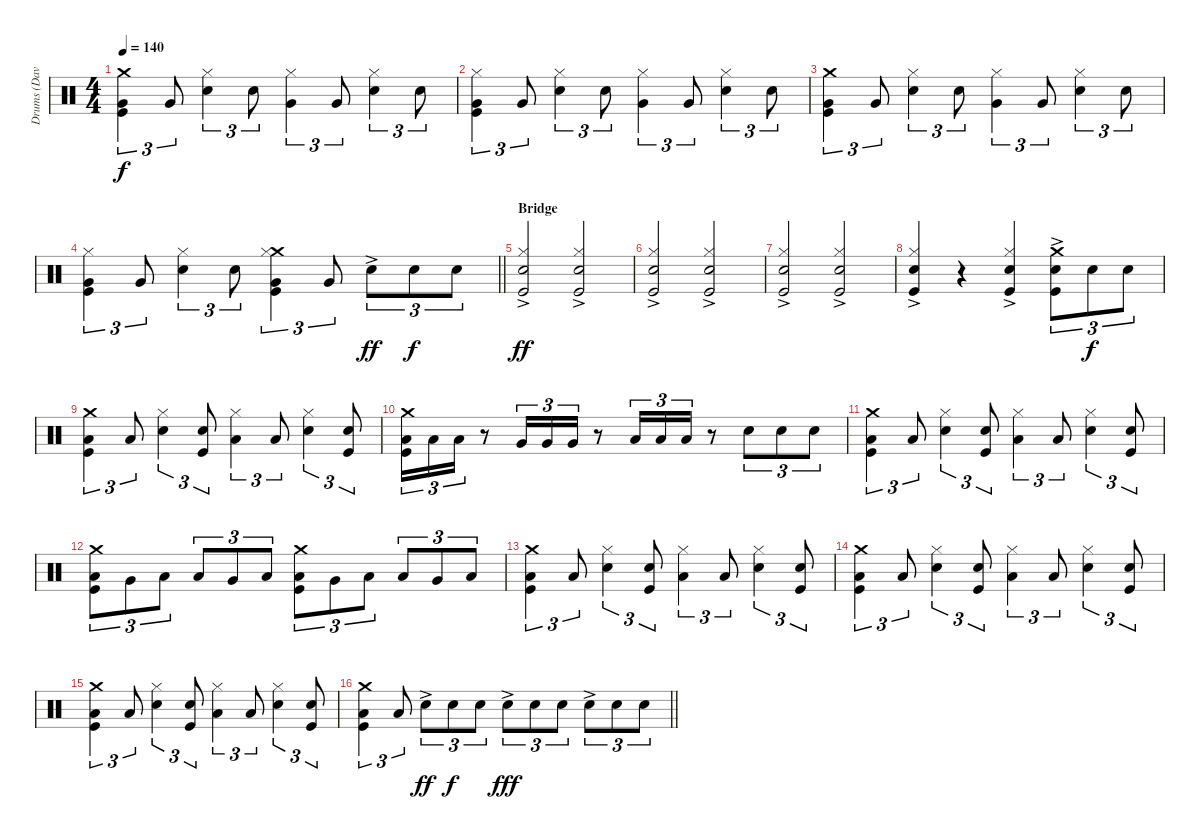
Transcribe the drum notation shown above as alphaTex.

\track ("Drums (Dave Atkins)" "Drums (Dav") {instrument percussion}
\staff {score}
\articulation defaults
\ts (4 4)
\tempo 140
\clef neutral
\ks c
("Crash medium (hit)" "Very Low Tom (hit)" "Kick (hit)").4{tu (3 2) dy f} "Very Low Tom (hit)".8{tu (3 2)} ("Hi-Hat (closed)" "Snare (hit) 2").4{tu (3 2)} "Snare (hit) 2".8{tu (3 2)} ("Hi-Hat (closed)" "Very Low Tom (hit)").4{tu (3 2)} "Very Low Tom (hit)".8{tu (3 2)} ("Hi-Hat (closed)" "Snare (hit) 2").4{tu (3 2)} "Snare (hit) 2".8{tu (3 2)} |
("Hi-Hat (closed)" "Very Low Tom (hit)" "Kick (hit)").4{tu (3 2)} "Very Low Tom (hit)".8{tu (3 2)} ("Hi-Hat (closed)" "Snare (hit) 2").4{tu (3 2)} "Snare (hit) 2".8{tu (3 2)} ("Hi-Hat (closed)" "Very Low Tom (hit)").4{tu (3 2)} "Very Low Tom (hit)".8{tu (3 2)} ("Hi-Hat (closed)" "Snare (hit) 2").4{tu (3 2)} "Snare (hit) 2".8{tu (3 2)} |
("Crash medium (hit)" "Very Low Tom (hit)" "Kick (hit)").4{tu (3 2)} "Very Low Tom (hit)".8{tu (3 2)} ("Hi-Hat (closed)" "Snare (hit) 2").4{tu (3 2)} "Snare (hit) 2".8{tu (3 2)} ("Hi-Hat (closed)" "Very Low Tom (hit)").4{tu (3 2)} "Very Low Tom (hit)".8{tu (3 2)} ("Hi-Hat (closed)" "Snare (hit) 2").4{tu (3 2)} "Snare (hit) 2".8{tu (3 2)} |
\barLineRight lightlight
("Hi-Hat (closed)" "Very Low Tom (hit)" "Kick (hit)").4{tu (3 2)} "Very Low Tom (hit)".8{tu (3 2)} ("Hi-Hat (closed)" "Snare (hit) 2").4{tu (3 2)} "Snare (hit) 2".8{tu (3 2)} ("Crash medium (hit)" "Hi-Hat (closed)" "Very Low Tom (hit)" "Kick (hit)").4{tu (3 2)} "Very Low Tom (hit)".8{tu (3 2)} "Snare (hit) 2"{ac}.8{tu (3 2) dy ff} "Snare (hit) 2".8{tu (3 2) dy f} "Snare (hit) 2".8{tu (3 2)} |
\section ("" "Bridge")
("Hi-Hat (closed)"{ac} "Snare (hit) 2"{ac} "Kick (hit)"{ac}).2{dy ff} ("Hi-Hat (closed)"{ac} "Snare (hit) 2"{ac} "Kick (hit)"{ac}).2 |
("Hi-Hat (closed)"{ac} "Snare (hit) 2"{ac} "Kick (hit)"{ac}).2 ("Hi-Hat (closed)"{ac} "Snare (hit) 2"{ac} "Kick (hit)"{ac}).2 |
("Hi-Hat (closed)"{ac} "Snare (hit) 2"{ac} "Kick (hit)"{ac}).2 ("Hi-Hat (closed)"{ac} "Snare (hit) 2"{ac} "Kick (hit)"{ac}).2 |
("Hi-Hat (closed)"{ac} "Snare (hit) 2"{ac} "Kick (hit)"{ac}).4 r.4 ("Hi-Hat (closed)"{ac} "Snare (hit) 2"{ac} "Kick (hit)"{ac}).4 ("Crash medium (hit)" "Snare (hit) 2"{ac} "Kick (hit)").8{tu (3 2)} "Snare (hit) 2".8{tu (3 2) dy f} "Snare (hit) 2".8{tu (3 2)} |
("Crash medium (hit)" "Low Floor Tom (hit)" "Kick (hit)").4{tu (3 2)} "Low Floor Tom (hit)".8{tu (3 2)} ("Hi-Hat (closed)" "Snare (hit) 2").4{tu (3 2)} ("Snare (hit) 2" "Kick (hit)").8{tu (3 2)} ("Hi-Hat (closed)" "Low Floor Tom (hit)").4{tu (3 2)} "Low Floor Tom (hit)".8{tu (3 2)} ("Hi-Hat (closed)" "Snare (hit) 2").4{tu (3 2)} ("Snare (hit) 2" "Kick (hit)").8{tu (3 2)} |
("Crash medium (hit)" "Low Tom (hit)" "Kick (hit)").16{tu (3 2)} "Low Tom (hit)".16{tu (3 2)} "Low Tom (hit)".16{tu (3 2)} r.8 "Very Low Tom (hit)".16{tu (3 2)} "Very Low Tom (hit)".16{tu (3 2)} "Very Low Tom (hit)".16{tu (3 2)} r.8 "Low Floor Tom (hit)".16{tu (3 2)} "Low Floor Tom (hit)".16{tu (3 2)} "Low Floor Tom (hit)".16{tu (3 2)} r.8 "Snare (hit) 2".8{tu (3 2)} "Snare (hit) 2".8{tu (3 2)} "Snare (hit) 2".8{tu (3 2)} |
("Crash medium (hit)" "Low Floor Tom (hit)" "Kick (hit)").4{tu (3 2)} "Low Floor Tom (hit)".8{tu (3 2)} ("Hi-Hat (closed)" "Snare (hit) 2").4{tu (3 2)} ("Snare (hit) 2" "Kick (hit)").8{tu (3 2)} ("Hi-Hat (closed)" "Low Floor Tom (hit)").4{tu (3 2)} "Low Floor Tom (hit)".8{tu (3 2)} ("Hi-Hat (closed)" "Snare (hit) 2").4{tu (3 2)} ("Snare (hit) 2" "Kick (hit)").8{tu (3 2)} |
("Crash medium (hit)" "Low Tom (hit)" "Kick (hit)").8{tu (3 2)} "Very Low Tom (hit)".8{tu (3 2)} "Low Floor Tom (hit)".8{tu (3 2)} "Low Tom (hit)".8{tu (3 2)} "Very Low Tom (hit)".8{tu (3 2)} "Low Floor Tom (hit)".8{tu (3 2)} ("Crash medium (hit)" "Low Tom (hit)" "Kick (hit)").8{tu (3 2)} "Very Low Tom (hit)".8{tu (3 2)} "Low Floor Tom (hit)".8{tu (3 2)} "Low Tom (hit)".8{tu (3 2)} "Very Low Tom (hit)".8{tu (3 2)} "Low Floor Tom (hit)".8{tu (3 2)} |
("Crash medium (hit)" "Low Floor Tom (hit)" "Kick (hit)").4{tu (3 2)} "Low Floor Tom (hit)".8{tu (3 2)} ("Hi-Hat (closed)" "Snare (hit) 2").4{tu (3 2)} ("Snare (hit) 2" "Kick (hit)").8{tu (3 2)} ("Hi-Hat (closed)" "Low Floor Tom (hit)").4{tu (3 2)} "Low Floor Tom (hit)".8{tu (3 2)} ("Hi-Hat (closed)" "Snare (hit) 2").4{tu (3 2)} ("Snare (hit) 2" "Kick (hit)").8{tu (3 2)} |
("Crash medium (hit)" "Low Floor Tom (hit)" "Kick (hit)").4{tu (3 2)} "Low Floor Tom (hit)".8{tu (3 2)} ("Hi-Hat (closed)" "Snare (hit) 2").4{tu (3 2)} ("Snare (hit) 2" "Kick (hit)").8{tu (3 2)} ("Hi-Hat (closed)" "Low Floor Tom (hit)").4{tu (3 2)} "Low Floor Tom (hit)".8{tu (3 2)} ("Hi-Hat (closed)" "Snare (hit) 2").4{tu (3 2)} ("Snare (hit) 2" "Kick (hit)").8{tu (3 2)} |
("Crash medium (hit)" "Low Floor Tom (hit)" "Kick (hit)").4{tu (3 2)} "Low Floor Tom (hit)".8{tu (3 2)} ("Hi-Hat (closed)" "Snare (hit) 2").4{tu (3 2)} ("Snare (hit) 2" "Kick (hit)").8{tu (3 2)} ("Hi-Hat (closed)" "Low Floor Tom (hit)").4{tu (3 2)} "Low Floor Tom (hit)".8{tu (3 2)} ("Hi-Hat (closed)" "Snare (hit) 2").4{tu (3 2)} ("Snare (hit) 2" "Kick (hit)").8{tu (3 2)} |
\barLineRight lightlight
("Crash medium (hit)" "Low Floor Tom (hit)" "Kick (hit)").4{tu (3 2)} "Low Floor Tom (hit)".8{tu (3 2)} "Snare (hit) 2"{ac}.8{tu (3 2) dy ff} "Snare (hit) 2".8{tu (3 2) dy f} "Snare (hit) 2".8{tu (3 2)} "Snare (hit) 2"{ac}.8{tu (3 2) dy fff} "Snare (hit) 2".8{tu (3 2)} "Snare (hit) 2".8{tu (3 2)} "Snare (hit) 2"{ac}.8{tu (3 2)} "Snare (hit) 2".8{tu (3 2)} "Snare (hit) 2".8{tu (3 2)}
